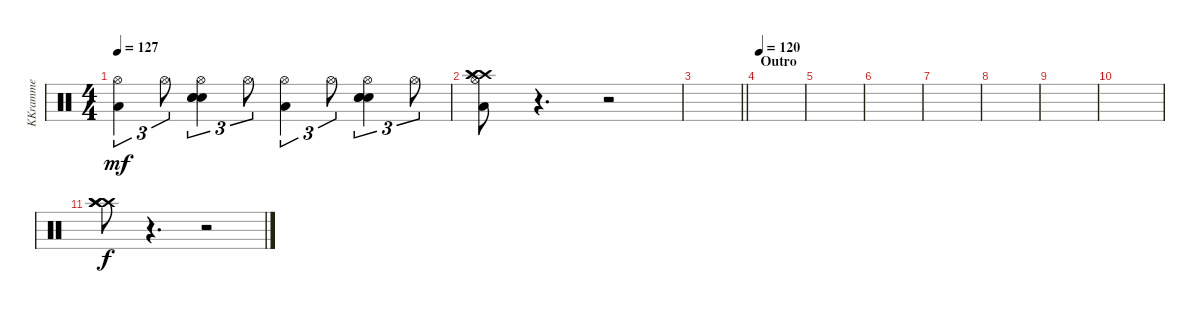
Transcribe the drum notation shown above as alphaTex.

\track ("KKramme" "KKramme") {instrument percussion}
\staff {score}
\articulation defaults
\ts (4 4)
\tempo 127
\clef neutral
\ks c
("Low Tom (hit)" "Hi-Hat (open)").4{tu (3 2) dy mf} "Hi-Hat (open)".8{tu (3 2)} ("Snare (hit) 2" "Snare (hit) 2" "Snare (hit) 2" "Hi-Hat (open)").4{tu (3 2)} "Hi-Hat (open)".8{tu (3 2)} ("Low Tom (hit)" "Hi-Hat (open)").4{tu (3 2)} "Hi-Hat (open)".8{tu (3 2)} ("Snare (hit) 2" "Snare (hit) 2" "Snare (hit) 2" "Hi-Hat (open)").4{tu (3 2)} "Hi-Hat (open)".8{tu (3 2)} |
("Crash high (hit)" "Crash high (hit)" "Crash high (hit)" "Low Tom (hit)" "Hi-Hat (open)").8 r.4{d} r.2 |
\barLineRight lightlight
|
\section ("" "Outro")
\tempo 120
|
|
|
|
|
|
|
("Crash high (hit)" "Crash high (hit)" "Crash high (hit)" "Crash high (hit)").8{dy f} r.4{d} r.2
